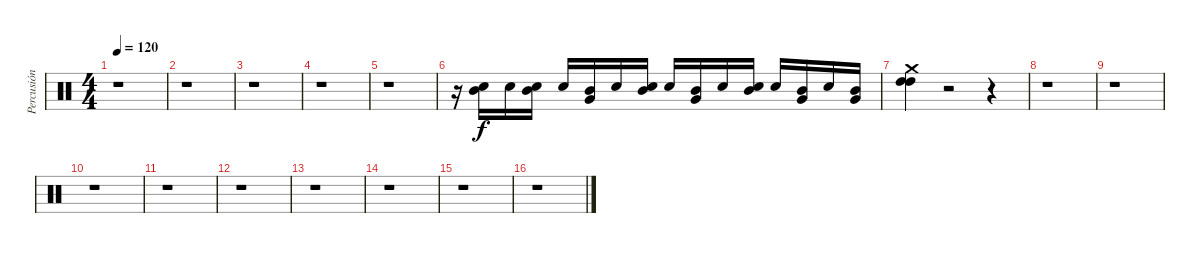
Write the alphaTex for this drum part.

\track ("Percusión" "Percusión") {instrument percussion}
\staff {score}
\articulation defaults
\ts (4 4)
\tempo 120
\clef neutral
\ks c
r.1{dy f} |
r.1 |
r.1 |
r.1 |
r.1 |
r.16 ("Snare (hit) 2" "Mid Tom (hit)").16 "Snare (hit) 2".16 ("Snare (hit) 2" "Mid Tom (hit)").16 "Snare (hit) 2".16 ("Very Low Tom (hit)" "Mid Tom (hit)").16 "Snare (hit) 2".16 ("Snare (hit) 2" "Mid Tom (hit)").16 "Snare (hit) 2".16 ("Very Low Tom (hit)" "Mid Tom (hit)").16 "Snare (hit) 2".16 ("Snare (hit) 2" "Mid Tom (hit)").16 "Snare (hit) 2".16 ("Very Low Tom (hit)" "Mid Tom (hit)").16 "Snare (hit) 2".16 ("Very Low Tom (hit)" "Mid Tom (hit)").16 |
("Crash medium (hit)" "High Tom (hit)" "High Tom (hit)").4 r.2 r.4 |
r.1 |
r.1 |
r.1 |
r.1 |
r.1 |
r.1 |
r.1 |
r.1 |
r.1
